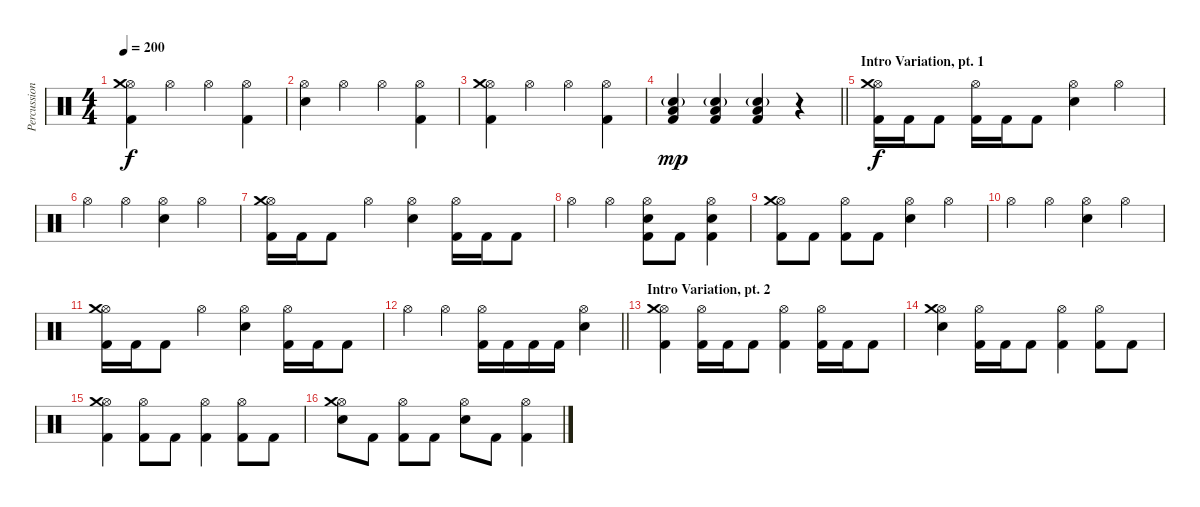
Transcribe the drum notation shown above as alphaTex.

\track ("Percussions" "Percussion") {instrument percussion}
\staff {score}
\articulation defaults
\ts (4 4)
\tempo 200
\clef neutral
\ks c
("Hi-Hat (open)" "Crash medium (hit)" "Kick (hit) 2").4{dy f} "Hi-Hat (open)".4 "Hi-Hat (open)".4 ("Hi-Hat (open)" "Kick (hit) 2").4 |
("Hi-Hat (open)" "Electric Snare (hit)").4 "Hi-Hat (open)".4 "Hi-Hat (open)".4 ("Hi-Hat (open)" "Kick (hit) 2").4 |
("Hi-Hat (open)" "Crash medium (hit)" "Kick (hit) 2").4 "Hi-Hat (open)".4 "Hi-Hat (open)".4 ("Hi-Hat (open)" "Kick (hit) 2").4 |
\barLineRight lightlight
("Snare (hit) 2"{g} "Low Tom (hit)" "Kick (hit) 2").4{dy mp} ("Snare (hit) 2"{g} "Low Tom (hit)" "Kick (hit) 2").4 ("Snare (hit) 2"{g} "Low Tom (hit)" "Kick (hit) 2").4 r.4 |
\section ("" "Intro Variation, pt. 1")
("Hi-Hat (open)" "Crash medium (hit)" "Kick (hit) 2").16{dy f} "Kick (hit) 2".16 "Kick (hit) 2".8 ("Hi-Hat (open)" "Kick (hit) 2").16 "Kick (hit) 2".16 "Kick (hit) 2".8 ("Hi-Hat (open)" "Electric Snare (hit)").4 "Hi-Hat (open)".4 |
"Hi-Hat (open)".4 "Hi-Hat (open)".4 ("Hi-Hat (open)" "Electric Snare (hit)").4 "Hi-Hat (open)".4 |
("Hi-Hat (open)" "Crash medium (hit)" "Kick (hit) 2").16 "Kick (hit) 2".16 "Kick (hit) 2".8 "Hi-Hat (open)".4 ("Hi-Hat (open)" "Electric Snare (hit)").4 ("Hi-Hat (open)" "Kick (hit) 2").16 "Kick (hit) 2".16 "Kick (hit) 2".8 |
"Hi-Hat (open)".4 "Hi-Hat (open)".4 ("Hi-Hat (open)" "Electric Snare (hit)" "Kick (hit) 2").8 "Kick (hit) 2".8 ("Hi-Hat (open)" "Electric Snare (hit)" "Kick (hit) 2").4 |
("Hi-Hat (open)" "Crash medium (hit)" "Kick (hit) 2").8 "Kick (hit) 2".8 ("Hi-Hat (open)" "Kick (hit) 2").8 "Kick (hit) 2".8 ("Hi-Hat (open)" "Electric Snare (hit)").4 "Hi-Hat (open)".4 |
"Hi-Hat (open)".4 "Hi-Hat (open)".4 ("Hi-Hat (open)" "Electric Snare (hit)").4 "Hi-Hat (open)".4 |
("Hi-Hat (open)" "Crash medium (hit)" "Kick (hit) 2").16 "Kick (hit) 2".16 "Kick (hit) 2".8 "Hi-Hat (open)".4 ("Hi-Hat (open)" "Electric Snare (hit)").4 ("Hi-Hat (open)" "Kick (hit) 2").16 "Kick (hit) 2".16 "Kick (hit) 2".8 |
\barLineRight lightlight "Hi-Hat (open)".4 "Hi-Hat (open)".4
("Hi-Hat (open)" "Kick (hit) 2").16 "Kick (hit) 2".16 "Kick (hit) 2".16 "Kick (hit) 2".16 ("Hi-Hat (open)" "Electric Snare (hit)").4 |
\section ("" "Intro Variation, pt. 2")
("Hi-Hat (open)" "Crash medium (hit)" "Kick (hit) 2").4 ("Hi-Hat (open)" "Kick (hit) 2").16 "Kick (hit) 2".16 "Kick (hit) 2".8 ("Hi-Hat (open)" "Kick (hit) 2").4 ("Hi-Hat (open)" "Kick (hit) 2").16 "Kick (hit) 2".16 "Kick (hit) 2".8 |
("Hi-Hat (open)" "Crash medium (hit)" "Electric Snare (hit)").4 ("Hi-Hat (open)" "Kick (hit) 2").16 "Kick (hit) 2".16 "Kick (hit) 2".8 ("Hi-Hat (open)" "Kick (hit) 2").4 ("Hi-Hat (open)" "Kick (hit) 2").8 "Kick (hit) 2".8 |
("Hi-Hat (open)" "Crash medium (hit)" "Kick (hit) 2").4 ("Hi-Hat (open)" "Kick (hit) 2").8 "Kick (hit) 2".8 ("Hi-Hat (open)" "Kick (hit) 2").4 ("Hi-Hat (open)" "Kick (hit) 2").8 "Kick (hit) 2".8 |
("Hi-Hat (open)" "Crash medium (hit)" "Electric Snare (hit)").8 "Kick (hit) 2".8 ("Hi-Hat (open)" "Kick (hit) 2").8 "Kick (hit) 2".8 ("Hi-Hat (open)" "Electric Snare (hit)").8 "Kick (hit) 2".8 ("Hi-Hat (open)" "Kick (hit) 2").4
